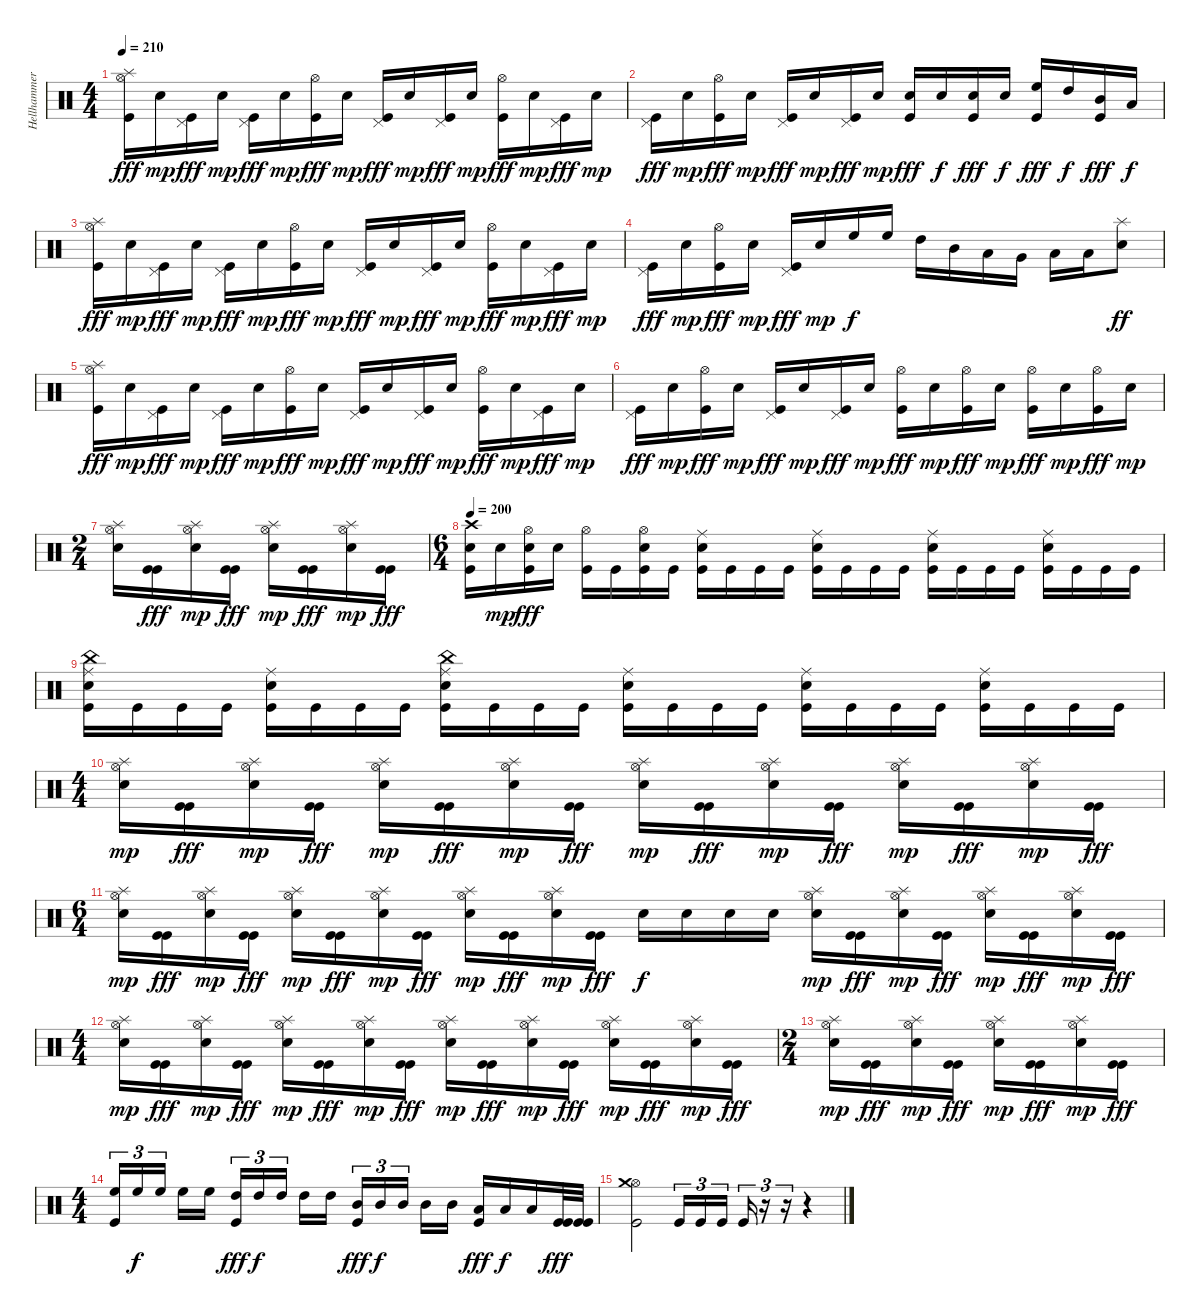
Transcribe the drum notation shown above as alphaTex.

\track ("Hellhammer" "Hellhammer") {instrument percussion}
\staff {score}
\articulation defaults
\ts (4 4)
\tempo 210
\clef neutral
\ks c
("Splash (hit)" "Hi-Hat (open)" "Kick (hit)").16{dy fff} "Electric Snare (hit)".16{dy mp} ("Pedal Hi-Hat (hit)" "Kick (hit)").16{dy fff} "Electric Snare (hit)".16{dy mp} ("Pedal Hi-Hat (hit)" "Kick (hit)").16{dy fff} "Electric Snare (hit)".16{dy mp} ("Hi-Hat (open)" "Kick (hit)").16{dy fff} "Electric Snare (hit)".16{dy mp} ("Pedal Hi-Hat (hit)" "Kick (hit)").16{dy fff} "Electric Snare (hit)".16{dy mp} ("Pedal Hi-Hat (hit)" "Kick (hit)").16{dy fff} "Electric Snare (hit)".16{dy mp} ("Hi-Hat (open)" "Kick (hit)").16{dy fff} "Electric Snare (hit)".16{dy mp} ("Pedal Hi-Hat (hit)" "Kick (hit)").16{dy fff} "Electric Snare (hit)".16{dy mp} |
("Pedal Hi-Hat (hit)" "Kick (hit)").16{dy fff} "Electric Snare (hit)".16{dy mp} ("Hi-Hat (open)" "Kick (hit)").16{dy fff} "Electric Snare (hit)".16{dy mp} ("Pedal Hi-Hat (hit)" "Kick (hit)").16{dy fff} "Electric Snare (hit)".16{dy mp} ("Pedal Hi-Hat (hit)" "Kick (hit)").16{dy fff} "Electric Snare (hit)".16{dy mp} ("Kick (hit)" "Electric Snare (hit)").16{dy fff} "Electric Snare (hit)".16{dy f} ("Kick (hit)" "Electric Snare (hit)").16{dy fff} "Electric Snare (hit)".16{dy f} ("Kick (hit)" "High Floor Tom (hit)").16{dy fff} "High Tom (hit)".16{dy f} ("Kick (hit)" "Mid Tom (hit)").16{dy fff} "Low Tom (hit)".16{dy f} |
("Splash (hit)" "Hi-Hat (open)" "Kick (hit)").16{dy fff} "Electric Snare (hit)".16{dy mp} ("Pedal Hi-Hat (hit)" "Kick (hit)").16{dy fff} "Electric Snare (hit)".16{dy mp} ("Pedal Hi-Hat (hit)" "Kick (hit)").16{dy fff} "Electric Snare (hit)".16{dy mp} ("Hi-Hat (open)" "Kick (hit)").16{dy fff} "Electric Snare (hit)".16{dy mp} ("Pedal Hi-Hat (hit)" "Kick (hit)").16{dy fff} "Electric Snare (hit)".16{dy mp} ("Pedal Hi-Hat (hit)" "Kick (hit)").16{dy fff} "Electric Snare (hit)".16{dy mp} ("Hi-Hat (open)" "Kick (hit)").16{dy fff} "Electric Snare (hit)".16{dy mp} ("Pedal Hi-Hat (hit)" "Kick (hit)").16{dy fff} "Electric Snare (hit)".16{dy mp} |
("Pedal Hi-Hat (hit)" "Kick (hit)").16{dy fff} "Electric Snare (hit)".16{dy mp} ("Hi-Hat (open)" "Kick (hit)").16{dy fff} "Electric Snare (hit)".16{dy mp} ("Pedal Hi-Hat (hit)" "Kick (hit)").16{dy fff} "Electric Snare (hit)".16{dy mp} "High Floor Tom (hit)".16{dy f} "High Floor Tom (hit)".16 "High Tom (hit)".16 "Mid Tom (hit)".16 "Low Tom (hit)".16 "Very Low Tom (hit)".16 "Low Floor Tom (hit)".16 "Low Floor Tom (hit)".16 ("Splash (hit)" "Electric Snare (hit)").8{dy ff} |
("Splash (hit)" "Hi-Hat (open)" "Kick (hit)").16{dy fff} "Electric Snare (hit)".16{dy mp} ("Pedal Hi-Hat (hit)" "Kick (hit)").16{dy fff} "Electric Snare (hit)".16{dy mp} ("Pedal Hi-Hat (hit)" "Kick (hit)").16{dy fff} "Electric Snare (hit)".16{dy mp} ("Hi-Hat (open)" "Kick (hit)").16{dy fff} "Electric Snare (hit)".16{dy mp} ("Pedal Hi-Hat (hit)" "Kick (hit)").16{dy fff} "Electric Snare (hit)".16{dy mp} ("Pedal Hi-Hat (hit)" "Kick (hit)").16{dy fff} "Electric Snare (hit)".16{dy mp} ("Hi-Hat (open)" "Kick (hit)").16{dy fff} "Electric Snare (hit)".16{dy mp} ("Pedal Hi-Hat (hit)" "Kick (hit)").16{dy fff} "Electric Snare (hit)".16{dy mp} |
("Pedal Hi-Hat (hit)" "Kick (hit)").16{dy fff} "Electric Snare (hit)".16{dy mp} ("Hi-Hat (open)" "Kick (hit)").16{dy fff} "Electric Snare (hit)".16{dy mp} ("Pedal Hi-Hat (hit)" "Kick (hit)").16{dy fff} "Electric Snare (hit)".16{dy mp} ("Pedal Hi-Hat (hit)" "Kick (hit)").16{dy fff} "Electric Snare (hit)".16{dy mp} ("Hi-Hat (open)" "Kick (hit)").16{dy fff} "Electric Snare (hit)".16{dy mp} ("Hi-Hat (open)" "Kick (hit)").16{dy fff} "Electric Snare (hit)".16{dy mp} ("Hi-Hat (open)" "Kick (hit)").16{dy fff} "Electric Snare (hit)".16{dy mp} ("Hi-Hat (open)" "Kick (hit)").16{dy fff} "Electric Snare (hit)".16{dy mp} |
\ts (2 4)
("Splash (hit)" "Hi-Hat (open)" "Electric Snare (hit)").16 ("Kick (hit)" "Kick (hit)").16{dy fff} ("Splash (hit)" "Hi-Hat (open)" "Electric Snare (hit)").16{dy mp} ("Kick (hit)" "Kick (hit)").16{dy fff} ("Splash (hit)" "Hi-Hat (open)" "Electric Snare (hit)").16{dy mp} ("Kick (hit)" "Kick (hit)").16{dy fff} ("Splash (hit)" "Hi-Hat (open)" "Electric Snare (hit)").16{dy mp} ("Kick (hit)" "Kick (hit)").16{dy fff} |
\ts (6 4)
\tempo 200
("Electric Snare (hit)" "Crash high (hit)" "Kick (hit)").16 "Electric Snare (hit)".16{dy mp} ("Electric Snare (hit)" "Hi-Hat (open)" "Kick (hit)").16{dy fff} "Electric Snare (hit)".16 ("Hi-Hat (open)" "Kick (hit)").16 "Kick (hit)".16 ("Electric Snare (hit)" "Hi-Hat (open)" "Kick (hit)").16 "Kick (hit)".16 ("Ride (middle)" "Electric Snare (hit)" "Kick (hit)").16 "Kick (hit)".16 "Kick (hit)".16 "Kick (hit)".16 ("Ride (middle)" "Electric Snare (hit)" "Kick (hit)").16 "Kick (hit)".16 "Kick (hit)".16 "Kick (hit)".16 ("Ride (middle)" "Electric Snare (hit)" "Kick (hit)").16 "Kick (hit)".16 "Kick (hit)".16 "Kick (hit)".16 ("Ride (middle)" "Electric Snare (hit)" "Kick (hit)").16 "Kick (hit)".16 "Kick (hit)".16 "Kick (hit)".16 |
("China (hit)" "Ride (middle)" "Electric Snare (hit)" "Kick (hit)").16 "Kick (hit)".16 "Kick (hit)".16 "Kick (hit)".16 ("Ride (middle)" "Electric Snare (hit)" "Kick (hit)").16 "Kick (hit)".16 "Kick (hit)".16 "Kick (hit)".16 ("China (hit)" "Ride (middle)" "Electric Snare (hit)" "Kick (hit)").16 "Kick (hit)".16 "Kick (hit)".16 "Kick (hit)".16 ("Ride (middle)" "Electric Snare (hit)" "Kick (hit)").16 "Kick (hit)".16 "Kick (hit)".16 "Kick (hit)".16 ("Ride (middle)" "Electric Snare (hit)" "Kick (hit)").16 "Kick (hit)".16 "Kick (hit)".16 "Kick (hit)".16 ("Ride (middle)" "Electric Snare (hit)" "Kick (hit)").16 "Kick (hit)".16 "Kick (hit)".16 "Kick (hit)".16 |
\ts (4 4)
("Splash (hit)" "Hi-Hat (open)" "Electric Snare (hit)").16{dy mp} ("Kick (hit)" "Kick (hit)").16{dy fff} ("Splash (hit)" "Hi-Hat (open)" "Electric Snare (hit)").16{dy mp} ("Kick (hit)" "Kick (hit)").16{dy fff} ("Splash (hit)" "Hi-Hat (open)" "Electric Snare (hit)").16{dy mp} ("Kick (hit)" "Kick (hit)").16{dy fff} ("Splash (hit)" "Hi-Hat (open)" "Electric Snare (hit)").16{dy mp} ("Kick (hit)" "Kick (hit)").16{dy fff} ("Splash (hit)" "Hi-Hat (open)" "Electric Snare (hit)").16{dy mp} ("Kick (hit)" "Kick (hit)").16{dy fff} ("Splash (hit)" "Hi-Hat (open)" "Electric Snare (hit)").16{dy mp} ("Kick (hit)" "Kick (hit)").16{dy fff} ("Splash (hit)" "Hi-Hat (open)" "Electric Snare (hit)").16{dy mp} ("Kick (hit)" "Kick (hit)").16{dy fff} ("Splash (hit)" "Hi-Hat (open)" "Electric Snare (hit)").16{dy mp} ("Kick (hit)" "Kick (hit)").16{dy fff} |
\ts (6 4)
("Splash (hit)" "Hi-Hat (open)" "Electric Snare (hit)").16{dy mp} ("Kick (hit)" "Kick (hit)").16{dy fff} ("Splash (hit)" "Hi-Hat (open)" "Electric Snare (hit)").16{dy mp} ("Kick (hit)" "Kick (hit)").16{dy fff} ("Splash (hit)" "Hi-Hat (open)" "Electric Snare (hit)").16{dy mp} ("Kick (hit)" "Kick (hit)").16{dy fff} ("Splash (hit)" "Hi-Hat (open)" "Electric Snare (hit)").16{dy mp} ("Kick (hit)" "Kick (hit)").16{dy fff} ("Splash (hit)" "Hi-Hat (open)" "Electric Snare (hit)").16{dy mp} ("Kick (hit)" "Kick (hit)").16{dy fff} ("Splash (hit)" "Hi-Hat (open)" "Electric Snare (hit)").16{dy mp} ("Kick (hit)" "Kick (hit)").16{dy fff} "Electric Snare (hit)".16{dy f} "Electric Snare (hit)".16 "Electric Snare (hit)".16 "Electric Snare (hit)".16 ("Splash (hit)" "Hi-Hat (open)" "Electric Snare (hit)").16{dy mp} ("Kick (hit)" "Kick (hit)").16{dy fff} ("Splash (hit)" "Hi-Hat (open)" "Electric Snare (hit)").16{dy mp} ("Kick (hit)" "Kick (hit)").16{dy fff} ("Splash (hit)" "Hi-Hat (open)" "Electric Snare (hit)").16{dy mp} ("Kick (hit)" "Kick (hit)").16{dy fff} ("Splash (hit)" "Hi-Hat (open)" "Electric Snare (hit)").16{dy mp} ("Kick (hit)" "Kick (hit)").16{dy fff} |
\ts (4 4)
("Splash (hit)" "Hi-Hat (open)" "Electric Snare (hit)").16{dy mp} ("Kick (hit)" "Kick (hit)").16{dy fff} ("Splash (hit)" "Hi-Hat (open)" "Electric Snare (hit)").16{dy mp} ("Kick (hit)" "Kick (hit)").16{dy fff} ("Splash (hit)" "Hi-Hat (open)" "Electric Snare (hit)").16{dy mp} ("Kick (hit)" "Kick (hit)").16{dy fff} ("Splash (hit)" "Hi-Hat (open)" "Electric Snare (hit)").16{dy mp} ("Kick (hit)" "Kick (hit)").16{dy fff} ("Splash (hit)" "Hi-Hat (open)" "Electric Snare (hit)").16{dy mp} ("Kick (hit)" "Kick (hit)").16{dy fff} ("Splash (hit)" "Hi-Hat (open)" "Electric Snare (hit)").16{dy mp} ("Kick (hit)" "Kick (hit)").16{dy fff} ("Splash (hit)" "Hi-Hat (open)" "Electric Snare (hit)").16{dy mp} ("Kick (hit)" "Kick (hit)").16{dy fff} ("Splash (hit)" "Hi-Hat (open)" "Electric Snare (hit)").16{dy mp} ("Kick (hit)" "Kick (hit)").16{dy fff} |
\ts (2 4)
("Splash (hit)" "Hi-Hat (open)" "Electric Snare (hit)").16{dy mp} ("Kick (hit)" "Kick (hit)").16{dy fff} ("Splash (hit)" "Hi-Hat (open)" "Electric Snare (hit)").16{dy mp} ("Kick (hit)" "Kick (hit)").16{dy fff} ("Splash (hit)" "Hi-Hat (open)" "Electric Snare (hit)").16{dy mp} ("Kick (hit)" "Kick (hit)").16{dy fff} ("Splash (hit)" "Hi-Hat (open)" "Electric Snare (hit)").16{dy mp} ("Kick (hit)" "Kick (hit)").16{dy fff} |
\ts (4 4)
("High Floor Tom (hit)" "Kick (hit)").16{tu (3 2)} "High Floor Tom (hit)".16{tu (3 2) dy f} "High Floor Tom (hit)".16{tu (3 2)} "High Floor Tom (hit)".16 "High Floor Tom (hit)".16 ("High Tom (hit)" "Kick (hit)").16{tu (3 2) dy fff} "High Tom (hit)".16{tu (3 2) dy f} "High Tom (hit)".16{tu (3 2)} "High Tom (hit)".16 "High Tom (hit)".16 ("Mid Tom (hit)" "Kick (hit)").16{tu (3 2) dy fff} "Mid Tom (hit)".16{tu (3 2) dy f} "Mid Tom (hit)".16{tu (3 2)} "Mid Tom (hit)".16 "Mid Tom (hit)".16 ("Low Tom (hit)" "Kick (hit)").16{dy fff} "Low Tom (hit)".16{dy f} "Low Tom (hit)".16 ("Kick (hit)" "Kick (hit)").32{dy fff} ("Kick (hit)" "Kick (hit)").32 |
("Hi-Hat (open)" "Crash medium (hit)" "Kick (hit)").2 "Kick (hit)".16{tu (3 2)} "Kick (hit)".16{tu (3 2)} "Kick (hit)".16{tu (3 2)} "Kick (hit)".16{tu (3 2)} r.16{tu (3 2)} r.16{tu (3 2)} r.4
